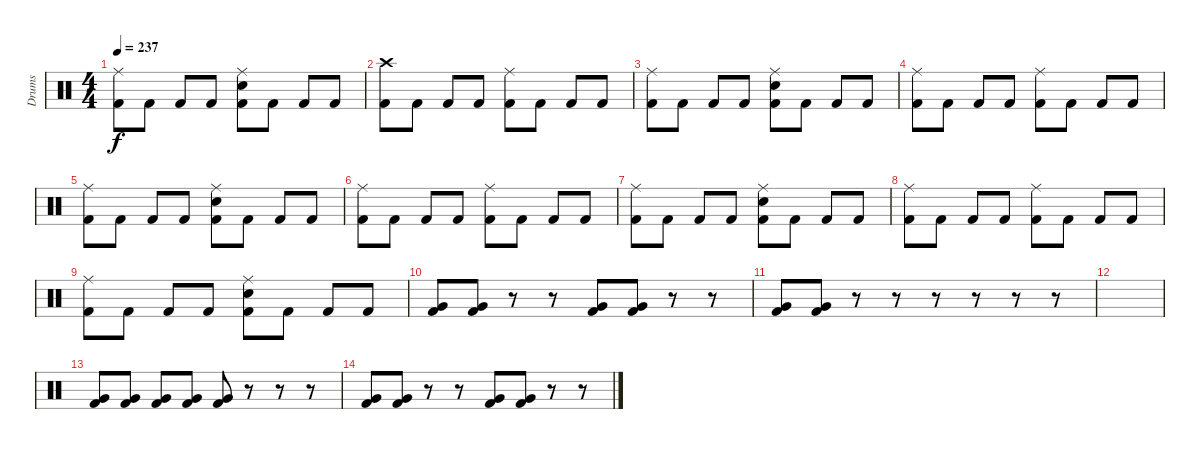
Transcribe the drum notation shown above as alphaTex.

\track ("Drums" "Drums") {instrument percussion}
\staff {score}
\articulation defaults
\ts (4 4)
\tempo 237
\clef neutral
\ks c
("Ride (middle)" "Kick (hit) 2").8{dy f} "Kick (hit) 2".8 "Kick (hit) 2".8 "Kick (hit) 2".8 ("Ride (middle)" "Electric Snare (hit)" "Kick (hit) 2").8 "Kick (hit) 2".8 "Kick (hit) 2".8 "Kick (hit) 2".8 |
("Crash high (hit)" "Kick (hit) 2").8 "Kick (hit) 2".8 "Kick (hit) 2".8 "Kick (hit) 2".8 ("Ride (middle)" "Kick (hit) 2").8 "Kick (hit) 2".8 "Kick (hit) 2".8 "Kick (hit) 2".8 |
("Ride (middle)" "Kick (hit) 2").8 "Kick (hit) 2".8 "Kick (hit) 2".8 "Kick (hit) 2".8 ("Ride (middle)" "Electric Snare (hit)" "Kick (hit) 2").8 "Kick (hit) 2".8 "Kick (hit) 2".8 "Kick (hit) 2".8 |
("Ride (middle)" "Kick (hit) 2").8 "Kick (hit) 2".8 "Kick (hit) 2".8 "Kick (hit) 2".8 ("Ride (middle)" "Kick (hit) 2").8 "Kick (hit) 2".8 "Kick (hit) 2".8 "Kick (hit) 2".8 |
("Ride (middle)" "Kick (hit) 2").8 "Kick (hit) 2".8 "Kick (hit) 2".8 "Kick (hit) 2".8 ("Ride (middle)" "Electric Snare (hit)" "Kick (hit) 2").8 "Kick (hit) 2".8 "Kick (hit) 2".8 "Kick (hit) 2".8 |
("Ride (middle)" "Kick (hit) 2").8 "Kick (hit) 2".8 "Kick (hit) 2".8 "Kick (hit) 2".8 ("Ride (middle)" "Kick (hit) 2").8 "Kick (hit) 2".8 "Kick (hit) 2".8 "Kick (hit) 2".8 |
("Ride (middle)" "Kick (hit) 2").8 "Kick (hit) 2".8 "Kick (hit) 2".8 "Kick (hit) 2".8 ("Ride (middle)" "Electric Snare (hit)" "Kick (hit) 2").8 "Kick (hit) 2".8 "Kick (hit) 2".8 "Kick (hit) 2".8 |
("Ride (middle)" "Kick (hit) 2").8 "Kick (hit) 2".8 "Kick (hit) 2".8 "Kick (hit) 2".8 ("Ride (middle)" "Kick (hit) 2").8 "Kick (hit) 2".8 "Kick (hit) 2".8 "Kick (hit) 2".8 |
("Ride (middle)" "Kick (hit) 2").8 "Kick (hit) 2".8 "Kick (hit) 2".8 "Kick (hit) 2".8 ("Ride (middle)" "Electric Snare (hit)" "Kick (hit) 2").8 "Kick (hit) 2".8 "Kick (hit) 2".8 "Kick (hit) 2".8 |
("Very Low Tom (hit)" "Kick (hit) 2").8 ("Very Low Tom (hit)" "Kick (hit) 2").8 r.8 r.8 ("Very Low Tom (hit)" "Kick (hit) 2").8 ("Very Low Tom (hit)" "Kick (hit) 2").8 r.8 r.8 |
("Very Low Tom (hit)" "Kick (hit) 2").8 ("Very Low Tom (hit)" "Kick (hit) 2").8 r.8 r.8 r.8 r.8 r.8 r.8 |
|
("Very Low Tom (hit)" "Kick (hit) 2").8 ("Very Low Tom (hit)" "Kick (hit) 2").8 ("Very Low Tom (hit)" "Kick (hit) 2").8 ("Very Low Tom (hit)" "Kick (hit) 2").8 ("Very Low Tom (hit)" "Kick (hit) 2").8 r.8 r.8 r.8 |
("Very Low Tom (hit)" "Kick (hit) 2").8 ("Very Low Tom (hit)" "Kick (hit) 2").8 r.8 r.8 ("Very Low Tom (hit)" "Kick (hit) 2").8 ("Very Low Tom (hit)" "Kick (hit) 2").8 r.8 r.8
